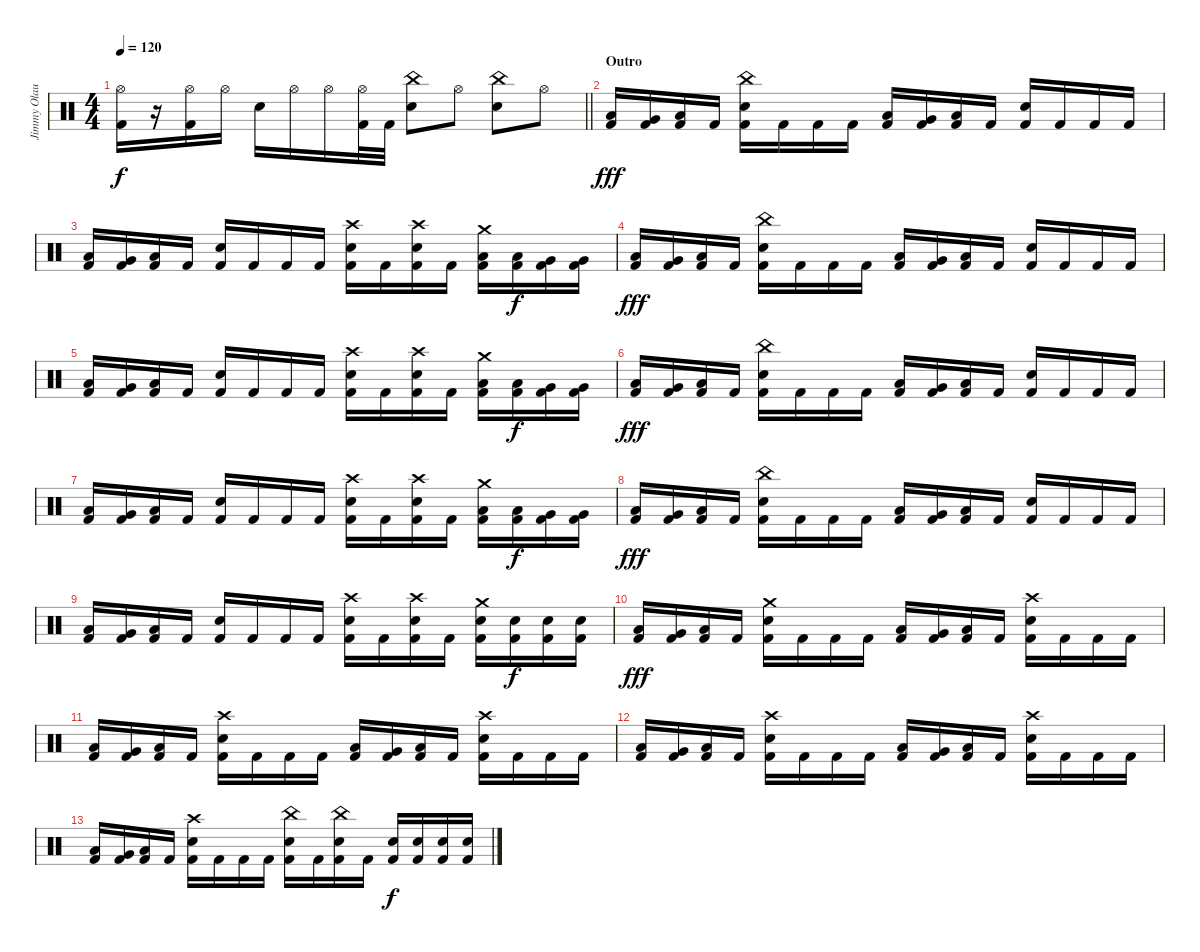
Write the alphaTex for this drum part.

\track ("Jimmy Olausson" "Jimmy Olau") {instrument percussion}
\staff {score}
\articulation defaults
\ts (4 4)
\tempo 120
\clef neutral
\barLineRight lightlight
\ks c
("Hi-Hat (open)" "Kick (hit) 2").16{dy f} r.16 ("Hi-Hat (open)" "Kick (hit) 2").16 "Hi-Hat (open)".16 "Snare (hit) 2".16 "Hi-Hat (open)".16 "Hi-Hat (open)".16 ("Hi-Hat (open)" "Kick (hit) 2").32 "Kick (hit) 2".32 ("China (hit)" "Snare (hit) 2").8 "Hi-Hat (open)".8 ("China (hit)" "Snare (hit) 2").8 "Hi-Hat (open)".8 |
\section ("" "Outro")
("Low Tom (hit)" "Kick (hit) 2").16{dy fff} ("Very Low Tom (hit)" "Kick (hit) 2").16 ("Low Floor Tom (hit)" "Kick (hit) 2").16 "Kick (hit) 2".16 ("China (hit)" "Snare (hit) 2" "Kick (hit) 2").16 "Kick (hit) 2".16 "Kick (hit) 2".16 "Kick (hit) 2".16 ("Low Tom (hit)" "Kick (hit) 2").16 ("Very Low Tom (hit)" "Kick (hit) 2").16 ("Low Floor Tom (hit)" "Kick (hit) 2").16 "Kick (hit) 2".16 ("Snare (hit) 2" "Kick (hit) 2").16 "Kick (hit) 2".16 "Kick (hit) 2".16 "Kick (hit) 2".16 |
("Low Tom (hit)" "Kick (hit) 2").16 ("Very Low Tom (hit)" "Kick (hit) 2").16 ("Low Floor Tom (hit)" "Kick (hit) 2").16 "Kick (hit) 2".16 ("Snare (hit) 2" "Kick (hit) 2").16 "Kick (hit) 2".16 "Kick (hit) 2".16 "Kick (hit) 2".16 ("Crash high (hit)" "Snare (hit) 2" "Kick (hit) 2").16 "Kick (hit) 2".16 ("Crash high (hit)" "Snare (hit) 2" "Kick (hit) 2").16 "Kick (hit) 2".16 ("Crash medium (hit)" "Low Tom (hit)" "Kick (hit) 2").16 ("Low Tom (hit)" "Kick (hit) 2").16{dy f} ("Very Low Tom (hit)" "Kick (hit) 2").16 ("Very Low Tom (hit)" "Kick (hit) 2").16 |
("Low Tom (hit)" "Kick (hit) 2").16{dy fff} ("Very Low Tom (hit)" "Kick (hit) 2").16 ("Low Floor Tom (hit)" "Kick (hit) 2").16 "Kick (hit) 2".16 ("China (hit)" "Snare (hit) 2" "Kick (hit) 2").16 "Kick (hit) 2".16 "Kick (hit) 2".16 "Kick (hit) 2".16 ("Low Tom (hit)" "Kick (hit) 2").16 ("Very Low Tom (hit)" "Kick (hit) 2").16 ("Low Floor Tom (hit)" "Kick (hit) 2").16 "Kick (hit) 2".16 ("Snare (hit) 2" "Kick (hit) 2").16 "Kick (hit) 2".16 "Kick (hit) 2".16 "Kick (hit) 2".16 |
("Low Tom (hit)" "Kick (hit) 2").16 ("Very Low Tom (hit)" "Kick (hit) 2").16 ("Low Floor Tom (hit)" "Kick (hit) 2").16 "Kick (hit) 2".16 ("Snare (hit) 2" "Kick (hit) 2").16 "Kick (hit) 2".16 "Kick (hit) 2".16 "Kick (hit) 2".16 ("Crash high (hit)" "Snare (hit) 2" "Kick (hit) 2").16 "Kick (hit) 2".16 ("Crash high (hit)" "Snare (hit) 2" "Kick (hit) 2").16 "Kick (hit) 2".16 ("Crash medium (hit)" "Low Tom (hit)" "Kick (hit) 2").16 ("Low Tom (hit)" "Kick (hit) 2").16{dy f} ("Very Low Tom (hit)" "Kick (hit) 2").16 ("Very Low Tom (hit)" "Kick (hit) 2").16 |
("Low Tom (hit)" "Kick (hit) 2").16{dy fff} ("Very Low Tom (hit)" "Kick (hit) 2").16 ("Low Floor Tom (hit)" "Kick (hit) 2").16 "Kick (hit) 2".16 ("China (hit)" "Snare (hit) 2" "Kick (hit) 2").16 "Kick (hit) 2".16 "Kick (hit) 2".16 "Kick (hit) 2".16 ("Low Tom (hit)" "Kick (hit) 2").16 ("Very Low Tom (hit)" "Kick (hit) 2").16 ("Low Floor Tom (hit)" "Kick (hit) 2").16 "Kick (hit) 2".16 ("Snare (hit) 2" "Kick (hit) 2").16 "Kick (hit) 2".16 "Kick (hit) 2".16 "Kick (hit) 2".16 |
("Low Tom (hit)" "Kick (hit) 2").16 ("Very Low Tom (hit)" "Kick (hit) 2").16 ("Low Floor Tom (hit)" "Kick (hit) 2").16 "Kick (hit) 2".16 ("Snare (hit) 2" "Kick (hit) 2").16 "Kick (hit) 2".16 "Kick (hit) 2".16 "Kick (hit) 2".16 ("Crash high (hit)" "Snare (hit) 2" "Kick (hit) 2").16 "Kick (hit) 2".16 ("Crash high (hit)" "Snare (hit) 2" "Kick (hit) 2").16 "Kick (hit) 2".16 ("Crash medium (hit)" "Low Tom (hit)" "Kick (hit) 2").16 ("Low Tom (hit)" "Kick (hit) 2").16{dy f} ("Very Low Tom (hit)" "Kick (hit) 2").16 ("Very Low Tom (hit)" "Kick (hit) 2").16 |
("Low Tom (hit)" "Kick (hit) 2").16{dy fff} ("Very Low Tom (hit)" "Kick (hit) 2").16 ("Low Floor Tom (hit)" "Kick (hit) 2").16 "Kick (hit) 2".16 ("China (hit)" "Snare (hit) 2" "Kick (hit) 2").16 "Kick (hit) 2".16 "Kick (hit) 2".16 "Kick (hit) 2".16 ("Low Tom (hit)" "Kick (hit) 2").16 ("Very Low Tom (hit)" "Kick (hit) 2").16 ("Low Floor Tom (hit)" "Kick (hit) 2").16 "Kick (hit) 2".16 ("Snare (hit) 2" "Kick (hit) 2").16 "Kick (hit) 2".16 "Kick (hit) 2".16 "Kick (hit) 2".16 |
("Low Tom (hit)" "Kick (hit) 2").16 ("Very Low Tom (hit)" "Kick (hit) 2").16 ("Low Floor Tom (hit)" "Kick (hit) 2").16 "Kick (hit) 2".16 ("Snare (hit) 2" "Kick (hit) 2").16 "Kick (hit) 2".16 "Kick (hit) 2".16 "Kick (hit) 2".16 ("Crash high (hit)" "Snare (hit) 2" "Kick (hit) 2").16 "Kick (hit) 2".16 ("Crash high (hit)" "Snare (hit) 2" "Kick (hit) 2").16 "Kick (hit) 2".16 ("Crash medium (hit)" "Snare (hit) 2" "Kick (hit) 2").16 ("Snare (hit) 2" "Kick (hit) 2").16{dy f} ("Snare (hit) 2" "Kick (hit) 2").16 ("Snare (hit) 2" "Kick (hit) 2").16 |
("Low Tom (hit)" "Kick (hit) 2").16{dy fff} ("Very Low Tom (hit)" "Kick (hit) 2").16 ("Low Floor Tom (hit)" "Kick (hit) 2").16 "Kick (hit) 2".16 ("Crash medium (hit)" "Snare (hit) 2" "Kick (hit) 2").16 "Kick (hit) 2".16 "Kick (hit) 2".16 "Kick (hit) 2".16 ("Low Tom (hit)" "Kick (hit) 2").16 ("Very Low Tom (hit)" "Kick (hit) 2").16 ("Low Floor Tom (hit)" "Kick (hit) 2").16 "Kick (hit) 2".16 ("Crash high (hit)" "Snare (hit) 2" "Kick (hit) 2").16 "Kick (hit) 2".16 "Kick (hit) 2".16 "Kick (hit) 2".16 |
("Low Tom (hit)" "Kick (hit) 2").16 ("Very Low Tom (hit)" "Kick (hit) 2").16 ("Low Floor Tom (hit)" "Kick (hit) 2").16 "Kick (hit) 2".16 ("Crash high (hit)" "Snare (hit) 2" "Kick (hit) 2").16 "Kick (hit) 2".16 "Kick (hit) 2".16 "Kick (hit) 2".16 ("Low Tom (hit)" "Kick (hit) 2").16 ("Very Low Tom (hit)" "Kick (hit) 2").16 ("Low Floor Tom (hit)" "Kick (hit) 2").16 "Kick (hit) 2".16 ("Crash high (hit)" "Snare (hit) 2" "Kick (hit) 2").16 "Kick (hit) 2".16 "Kick (hit) 2".16 "Kick (hit) 2".16 |
("Low Tom (hit)" "Kick (hit) 2").16 ("Very Low Tom (hit)" "Kick (hit) 2").16 ("Low Floor Tom (hit)" "Kick (hit) 2").16 "Kick (hit) 2".16 ("Crash high (hit)" "Snare (hit) 2" "Kick (hit) 2").16 "Kick (hit) 2".16 "Kick (hit) 2".16 "Kick (hit) 2".16 ("Low Tom (hit)" "Kick (hit) 2").16 ("Very Low Tom (hit)" "Kick (hit) 2").16 ("Low Floor Tom (hit)" "Kick (hit) 2").16 "Kick (hit) 2".16 ("Crash high (hit)" "Snare (hit) 2" "Kick (hit) 2").16 "Kick (hit) 2".16 "Kick (hit) 2".16 "Kick (hit) 2".16 |
("Low Tom (hit)" "Kick (hit) 2").16 ("Very Low Tom (hit)" "Kick (hit) 2").16 ("Low Floor Tom (hit)" "Kick (hit) 2").16 "Kick (hit) 2".16 ("Crash high (hit)" "Snare (hit) 2" "Kick (hit) 2").16 "Kick (hit) 2".16 "Kick (hit) 2".16 "Kick (hit) 2".16 ("China (hit)" "Snare (hit) 2" "Kick (hit) 2").16 "Kick (hit) 2".16 ("China (hit)" "Snare (hit) 2" "Kick (hit) 2").16 "Kick (hit) 2".16 ("Snare (hit) 2" "Kick (hit) 2").16{dy f} ("Snare (hit) 2" "Kick (hit) 2").16 ("Snare (hit) 2" "Kick (hit) 2").16 ("Snare (hit) 2" "Kick (hit) 2").16
